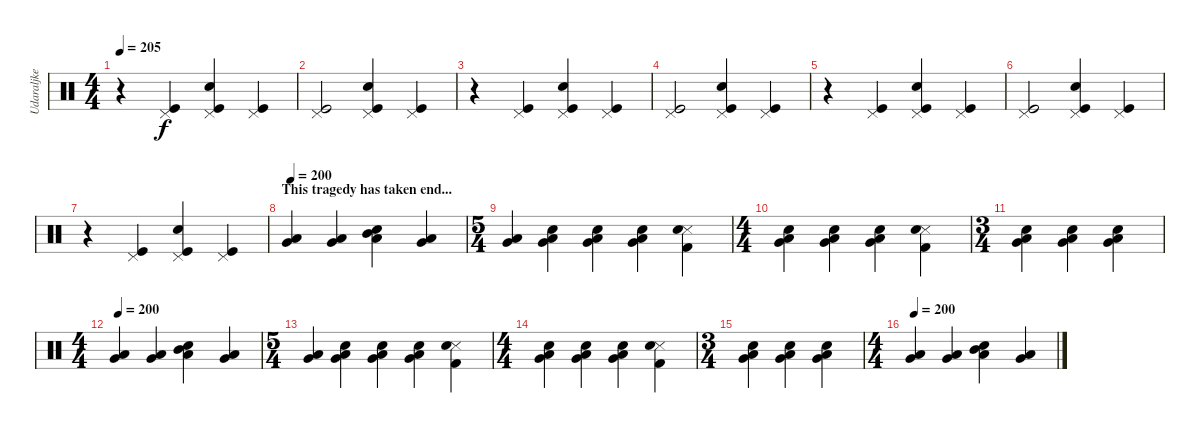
\track ("Udaraljke" "Udaraljke") {instrument percussion}
\staff {score}
\articulation defaults
\ts (4 4)
\tempo 205
\clef neutral
\ks c
r.4{dy f} ("Kick (hit)" "Pedal Hi-Hat (hit)").4 ("Kick (hit)" "Snare (hit) 2" "Pedal Hi-Hat (hit)").4 ("Kick (hit)" "Pedal Hi-Hat (hit)").4 |
("Kick (hit)" "Pedal Hi-Hat (hit)").2 ("Kick (hit)" "Snare (hit) 2" "Pedal Hi-Hat (hit)").4 ("Kick (hit)" "Pedal Hi-Hat (hit)").4 |
r.4 ("Kick (hit)" "Pedal Hi-Hat (hit)").4 ("Kick (hit)" "Snare (hit) 2" "Pedal Hi-Hat (hit)").4 ("Kick (hit)" "Pedal Hi-Hat (hit)").4 |
("Kick (hit)" "Pedal Hi-Hat (hit)").2 ("Kick (hit)" "Snare (hit) 2" "Pedal Hi-Hat (hit)").4 ("Kick (hit)" "Pedal Hi-Hat (hit)").4 |
r.4 ("Kick (hit)" "Pedal Hi-Hat (hit)").4 ("Kick (hit)" "Snare (hit) 2" "Pedal Hi-Hat (hit)").4 ("Kick (hit)" "Pedal Hi-Hat (hit)").4 |
("Kick (hit)" "Pedal Hi-Hat (hit)").2 ("Kick (hit)" "Snare (hit) 2" "Pedal Hi-Hat (hit)").4 ("Kick (hit)" "Pedal Hi-Hat (hit)").4 |
r.4 ("Kick (hit)" "Pedal Hi-Hat (hit)").4 ("Kick (hit)" "Snare (hit) 2" "Pedal Hi-Hat (hit)").4 ("Kick (hit)" "Pedal Hi-Hat (hit)").4 |
\section ("" "This tragedy has taken end...")
\tempo 205
\tempo 200
("Very Low Tom (hit)" "Low Tom (hit)").4{volume 10 balance 8} ("Very Low Tom (hit)" "Low Tom (hit)").4 ("Mid Tom (hit)" "Low Tom (hit)" "Snare (hit) 2").4 ("Very Low Tom (hit)" "Low Tom (hit)").4 |
\ts (5 4)
("Very Low Tom (hit)" "Low Tom (hit)").4 ("Very Low Tom (hit)" "Low Floor Tom (hit)" "Snare (hit) 2").4 ("Very Low Tom (hit)" "Low Floor Tom (hit)" "Snare (hit) 2").4 ("Very Low Tom (hit)" "Low Floor Tom (hit)" "Snare (hit) 2").4 ("Kick (hit) 2" "Metronome (hit)" "Snare (hit) 2").4 |
\ts (4 4)
("Very Low Tom (hit)" "Low Floor Tom (hit)" "Snare (hit) 2").4 ("Very Low Tom (hit)" "Low Floor Tom (hit)" "Snare (hit) 2").4 ("Very Low Tom (hit)" "Low Floor Tom (hit)" "Snare (hit) 2").4 ("Kick (hit) 2" "Metronome (hit)" "Snare (hit) 2").4 |
\ts (3 4)
("Very Low Tom (hit)" "Low Floor Tom (hit)" "Snare (hit) 2").4 ("Very Low Tom (hit)" "Low Floor Tom (hit)" "Snare (hit) 2").4 ("Very Low Tom (hit)" "Low Floor Tom (hit)" "Snare (hit) 2").4 |
\ts (4 4)
\tempo 200
("Very Low Tom (hit)" "Low Tom (hit)").4{volume 10 balance 8} ("Very Low Tom (hit)" "Low Tom (hit)").4 ("Mid Tom (hit)" "Low Tom (hit)" "Snare (hit) 2").4 ("Very Low Tom (hit)" "Low Tom (hit)").4 |
\ts (5 4)
("Very Low Tom (hit)" "Low Tom (hit)").4 ("Very Low Tom (hit)" "Low Floor Tom (hit)" "Snare (hit) 2").4 ("Very Low Tom (hit)" "Low Floor Tom (hit)" "Snare (hit) 2").4 ("Very Low Tom (hit)" "Low Floor Tom (hit)" "Snare (hit) 2").4 ("Kick (hit) 2" "Metronome (hit)" "Snare (hit) 2").4 |
\ts (4 4)
("Very Low Tom (hit)" "Low Floor Tom (hit)" "Snare (hit) 2").4 ("Very Low Tom (hit)" "Low Floor Tom (hit)" "Snare (hit) 2").4 ("Very Low Tom (hit)" "Low Floor Tom (hit)" "Snare (hit) 2").4 ("Kick (hit) 2" "Metronome (hit)" "Snare (hit) 2").4 |
\ts (3 4)
("Very Low Tom (hit)" "Low Floor Tom (hit)" "Snare (hit) 2").4 ("Very Low Tom (hit)" "Low Floor Tom (hit)" "Snare (hit) 2").4 ("Very Low Tom (hit)" "Low Floor Tom (hit)" "Snare (hit) 2").4 |
\ts (4 4)
\tempo 200
("Very Low Tom (hit)" "Low Tom (hit)").4{volume 10 balance 8} ("Very Low Tom (hit)" "Low Tom (hit)").4 ("Mid Tom (hit)" "Low Tom (hit)" "Snare (hit) 2").4 ("Very Low Tom (hit)" "Low Tom (hit)").4
